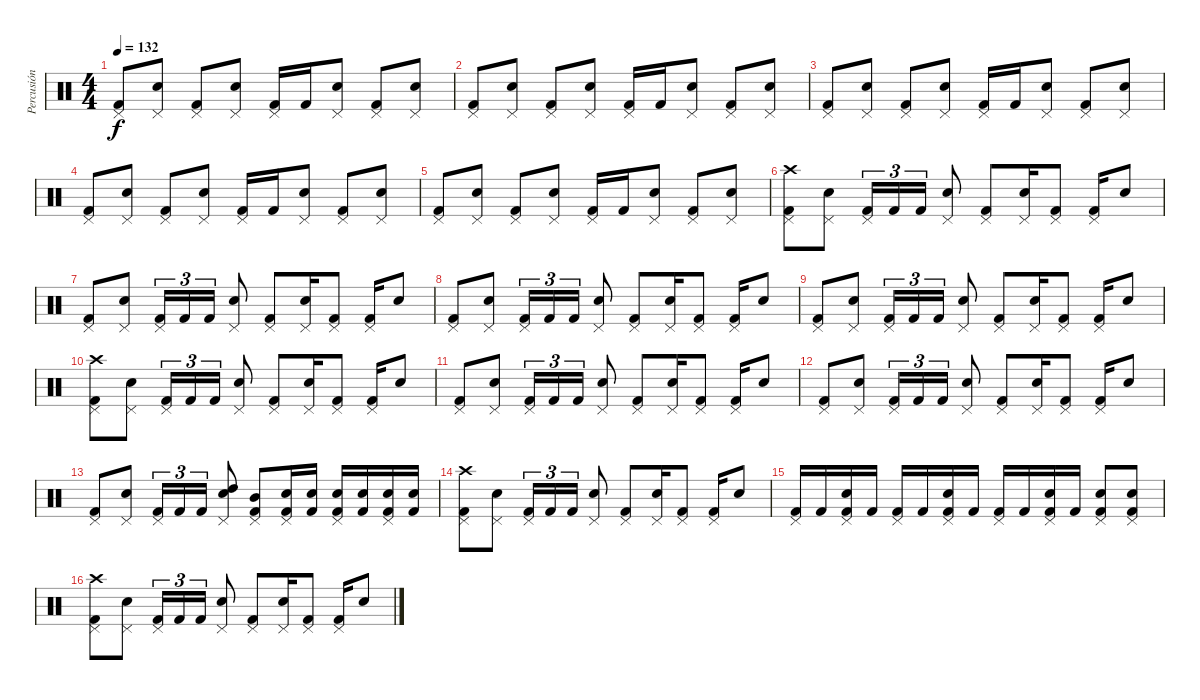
\track ("Percusión" "Percusión") {instrument percussion}
\staff {score}
\articulation defaults
\ts (4 4)
\tempo 132
\clef neutral
\ks c
("Pedal Hi-Hat (hit)" "Kick (hit) 2").8{dy f} ("Pedal Hi-Hat (hit)" "Electric Snare (hit)").8 ("Pedal Hi-Hat (hit)" "Kick (hit) 2").8 ("Pedal Hi-Hat (hit)" "Electric Snare (hit)").8 ("Pedal Hi-Hat (hit)" "Kick (hit) 2").16 "Kick (hit) 2".16 ("Pedal Hi-Hat (hit)" "Electric Snare (hit)").8 ("Pedal Hi-Hat (hit)" "Kick (hit) 2").8 ("Pedal Hi-Hat (hit)" "Electric Snare (hit)").8 |
("Pedal Hi-Hat (hit)" "Kick (hit) 2").8 ("Pedal Hi-Hat (hit)" "Electric Snare (hit)").8 ("Pedal Hi-Hat (hit)" "Kick (hit) 2").8 ("Pedal Hi-Hat (hit)" "Electric Snare (hit)").8 ("Pedal Hi-Hat (hit)" "Kick (hit) 2").16 "Kick (hit) 2".16 ("Pedal Hi-Hat (hit)" "Electric Snare (hit)").8 ("Pedal Hi-Hat (hit)" "Kick (hit) 2").8 ("Pedal Hi-Hat (hit)" "Electric Snare (hit)").8 |
("Pedal Hi-Hat (hit)" "Kick (hit) 2").8 ("Pedal Hi-Hat (hit)" "Electric Snare (hit)").8 ("Pedal Hi-Hat (hit)" "Kick (hit) 2").8 ("Pedal Hi-Hat (hit)" "Electric Snare (hit)").8 ("Pedal Hi-Hat (hit)" "Kick (hit) 2").16 "Kick (hit) 2".16 ("Pedal Hi-Hat (hit)" "Electric Snare (hit)").8 ("Pedal Hi-Hat (hit)" "Kick (hit) 2").8 ("Pedal Hi-Hat (hit)" "Electric Snare (hit)").8 |
("Pedal Hi-Hat (hit)" "Kick (hit) 2").8 ("Pedal Hi-Hat (hit)" "Electric Snare (hit)").8 ("Pedal Hi-Hat (hit)" "Kick (hit) 2").8 ("Pedal Hi-Hat (hit)" "Electric Snare (hit)").8 ("Pedal Hi-Hat (hit)" "Kick (hit) 2").16 "Kick (hit) 2".16 ("Pedal Hi-Hat (hit)" "Electric Snare (hit)").8 ("Pedal Hi-Hat (hit)" "Kick (hit) 2").8 ("Pedal Hi-Hat (hit)" "Electric Snare (hit)").8 |
("Pedal Hi-Hat (hit)" "Kick (hit) 2").8 ("Pedal Hi-Hat (hit)" "Electric Snare (hit)").8 ("Pedal Hi-Hat (hit)" "Kick (hit) 2").8 ("Pedal Hi-Hat (hit)" "Electric Snare (hit)").8 ("Pedal Hi-Hat (hit)" "Kick (hit) 2").16 "Kick (hit) 2".16 ("Pedal Hi-Hat (hit)" "Electric Snare (hit)").8 ("Pedal Hi-Hat (hit)" "Kick (hit) 2").8 ("Pedal Hi-Hat (hit)" "Electric Snare (hit)").8 |
("Pedal Hi-Hat (hit)" "Crash high (hit)" "Kick (hit) 2").8 ("Pedal Hi-Hat (hit)" "Electric Snare (hit)").8 ("Pedal Hi-Hat (hit)" "Kick (hit) 2").16{tu (3 2)} "Kick (hit) 2".16{tu (3 2)} "Kick (hit) 2".16{tu (3 2)} ("Pedal Hi-Hat (hit)" "Electric Snare (hit)").8 ("Pedal Hi-Hat (hit)" "Kick (hit) 2").8 ("Pedal Hi-Hat (hit)" "Electric Snare (hit)").16 ("Pedal Hi-Hat (hit)" "Kick (hit) 2").8 ("Pedal Hi-Hat (hit)" "Kick (hit) 2").16 "Electric Snare (hit)".8 |
("Pedal Hi-Hat (hit)" "Kick (hit) 2").8 ("Pedal Hi-Hat (hit)" "Electric Snare (hit)").8 ("Pedal Hi-Hat (hit)" "Kick (hit) 2").16{tu (3 2)} "Kick (hit) 2".16{tu (3 2)} "Kick (hit) 2".16{tu (3 2)} ("Pedal Hi-Hat (hit)" "Electric Snare (hit)").8 ("Pedal Hi-Hat (hit)" "Kick (hit) 2").8 ("Pedal Hi-Hat (hit)" "Electric Snare (hit)").16 ("Pedal Hi-Hat (hit)" "Kick (hit) 2").8 ("Pedal Hi-Hat (hit)" "Kick (hit) 2").16 "Electric Snare (hit)".8 |
("Pedal Hi-Hat (hit)" "Kick (hit) 2").8 ("Pedal Hi-Hat (hit)" "Electric Snare (hit)").8 ("Pedal Hi-Hat (hit)" "Kick (hit) 2").16{tu (3 2)} "Kick (hit) 2".16{tu (3 2)} "Kick (hit) 2".16{tu (3 2)} ("Pedal Hi-Hat (hit)" "Electric Snare (hit)").8 ("Pedal Hi-Hat (hit)" "Kick (hit) 2").8 ("Pedal Hi-Hat (hit)" "Electric Snare (hit)").16 ("Pedal Hi-Hat (hit)" "Kick (hit) 2").8 ("Pedal Hi-Hat (hit)" "Kick (hit) 2").16 "Electric Snare (hit)".8 |
("Pedal Hi-Hat (hit)" "Kick (hit) 2").8 ("Pedal Hi-Hat (hit)" "Electric Snare (hit)").8 ("Pedal Hi-Hat (hit)" "Kick (hit) 2").16{tu (3 2)} "Kick (hit) 2".16{tu (3 2)} "Kick (hit) 2".16{tu (3 2)} ("Pedal Hi-Hat (hit)" "Electric Snare (hit)").8 ("Pedal Hi-Hat (hit)" "Kick (hit) 2").8 ("Pedal Hi-Hat (hit)" "Electric Snare (hit)").16 ("Pedal Hi-Hat (hit)" "Kick (hit) 2").8 ("Pedal Hi-Hat (hit)" "Kick (hit) 2").16 "Electric Snare (hit)".8 |
("Pedal Hi-Hat (hit)" "Crash high (hit)" "Kick (hit) 2").8 ("Pedal Hi-Hat (hit)" "Electric Snare (hit)").8 ("Pedal Hi-Hat (hit)" "Kick (hit) 2").16{tu (3 2)} "Kick (hit) 2".16{tu (3 2)} "Kick (hit) 2".16{tu (3 2)} ("Pedal Hi-Hat (hit)" "Electric Snare (hit)").8 ("Pedal Hi-Hat (hit)" "Kick (hit) 2").8 ("Pedal Hi-Hat (hit)" "Electric Snare (hit)").16 ("Pedal Hi-Hat (hit)" "Kick (hit) 2").8 ("Pedal Hi-Hat (hit)" "Kick (hit) 2").16 "Electric Snare (hit)".8 |
("Pedal Hi-Hat (hit)" "Kick (hit) 2").8 ("Pedal Hi-Hat (hit)" "Electric Snare (hit)").8 ("Pedal Hi-Hat (hit)" "Kick (hit) 2").16{tu (3 2)} "Kick (hit) 2".16{tu (3 2)} "Kick (hit) 2".16{tu (3 2)} ("Pedal Hi-Hat (hit)" "Electric Snare (hit)").8 ("Pedal Hi-Hat (hit)" "Kick (hit) 2").8 ("Pedal Hi-Hat (hit)" "Electric Snare (hit)").16 ("Pedal Hi-Hat (hit)" "Kick (hit) 2").8 ("Pedal Hi-Hat (hit)" "Kick (hit) 2").16 "Electric Snare (hit)".8 |
("Pedal Hi-Hat (hit)" "Kick (hit) 2").8 ("Pedal Hi-Hat (hit)" "Electric Snare (hit)").8 ("Pedal Hi-Hat (hit)" "Kick (hit) 2").16{tu (3 2)} "Kick (hit) 2".16{tu (3 2)} "Kick (hit) 2".16{tu (3 2)} ("Pedal Hi-Hat (hit)" "Electric Snare (hit)").8 ("Pedal Hi-Hat (hit)" "Kick (hit) 2").8 ("Pedal Hi-Hat (hit)" "Electric Snare (hit)").16 ("Pedal Hi-Hat (hit)" "Kick (hit) 2").8 ("Pedal Hi-Hat (hit)" "Kick (hit) 2").16 "Electric Snare (hit)".8 |
("Pedal Hi-Hat (hit)" "Kick (hit) 2").8 ("Pedal Hi-Hat (hit)" "Electric Snare (hit)").8 ("Pedal Hi-Hat (hit)" "Kick (hit) 2").16{tu (3 2)} "Kick (hit) 2".16{tu (3 2)} "Kick (hit) 2".16{tu (3 2)} ("Pedal Hi-Hat (hit)" "High Tom (hit)" "Electric Snare (hit)").8 ("Pedal Hi-Hat (hit)" "Mid Tom (hit)" "Kick (hit) 2").8 ("Pedal Hi-Hat (hit)" "Electric Snare (hit)" "Kick (hit) 2").16 ("Electric Snare (hit)" "Kick (hit) 2").16 ("Pedal Hi-Hat (hit)" "Electric Snare (hit)" "Kick (hit) 2").16 ("Electric Snare (hit)" "Kick (hit) 2").16 ("Pedal Hi-Hat (hit)" "Electric Snare (hit)" "Kick (hit) 2").16 ("Electric Snare (hit)" "Kick (hit) 2").16 |
("Pedal Hi-Hat (hit)" "Crash high (hit)" "Kick (hit) 2").8 ("Pedal Hi-Hat (hit)" "Electric Snare (hit)").8 ("Pedal Hi-Hat (hit)" "Kick (hit) 2").16{tu (3 2)} "Kick (hit) 2".16{tu (3 2)} "Kick (hit) 2".16{tu (3 2)} ("Pedal Hi-Hat (hit)" "Electric Snare (hit)").8 ("Pedal Hi-Hat (hit)" "Kick (hit) 2").8 ("Pedal Hi-Hat (hit)" "Electric Snare (hit)").16 ("Pedal Hi-Hat (hit)" "Kick (hit) 2").8 ("Pedal Hi-Hat (hit)" "Kick (hit) 2").16 "Electric Snare (hit)".8 |
("Pedal Hi-Hat (hit)" "Kick (hit) 2").16 "Kick (hit) 2".16 ("Pedal Hi-Hat (hit)" "Electric Snare (hit)" "Kick (hit) 2").16 "Kick (hit) 2".16 ("Pedal Hi-Hat (hit)" "Kick (hit) 2").16 "Kick (hit) 2".16 ("Pedal Hi-Hat (hit)" "Electric Snare (hit)" "Kick (hit) 2").16 "Kick (hit) 2".16 ("Pedal Hi-Hat (hit)" "Kick (hit) 2").16 "Kick (hit) 2".16 ("Pedal Hi-Hat (hit)" "Electric Snare (hit)" "Kick (hit) 2").16 "Kick (hit) 2".16 ("Pedal Hi-Hat (hit)" "Electric Snare (hit)" "Kick (hit) 2").8 ("Pedal Hi-Hat (hit)" "Electric Snare (hit)" "Kick (hit) 2").8 |
("Pedal Hi-Hat (hit)" "Crash high (hit)" "Kick (hit) 2").8 ("Pedal Hi-Hat (hit)" "Electric Snare (hit)").8 ("Pedal Hi-Hat (hit)" "Kick (hit) 2").16{tu (3 2)} "Kick (hit) 2".16{tu (3 2)} "Kick (hit) 2".16{tu (3 2)} ("Pedal Hi-Hat (hit)" "Electric Snare (hit)").8 ("Pedal Hi-Hat (hit)" "Kick (hit) 2").8 ("Pedal Hi-Hat (hit)" "Electric Snare (hit)").16 ("Pedal Hi-Hat (hit)" "Kick (hit) 2").8 ("Pedal Hi-Hat (hit)" "Kick (hit) 2").16 "Electric Snare (hit)".8
